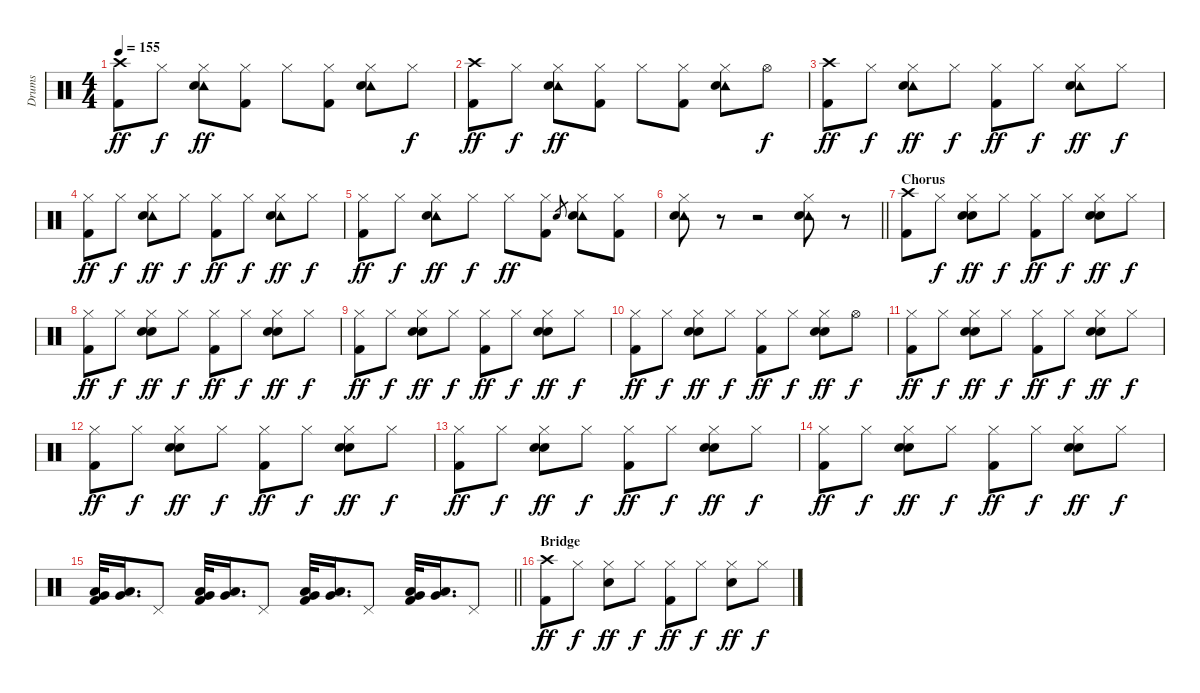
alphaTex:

\track ("Drums" "Drums") {instrument percussion}
\staff {score}
\articulation defaults
\ts (4 4)
\tempo 155
\clef neutral
\ks c
("Crash high (hit)" "Kick (hit) 2").8{dy ff} "Hi-Hat (closed)".8{dy f} ("Tambourine (hit)" "Hi-Hat (closed)" "Snare (hit) 2").8{dy ff} ("Hi-Hat (closed)" "Kick (hit) 2").8 "Hi-Hat (closed)".8 ("Hi-Hat (closed)" "Kick (hit) 2").8 ("Tambourine (hit)" "Hi-Hat (closed)" "Snare (hit) 2").8 "Hi-Hat (closed)".8{dy f} |
("Crash high (hit)" "Kick (hit) 2").8{dy ff} "Hi-Hat (closed)".8{dy f} ("Tambourine (hit)" "Hi-Hat (closed)" "Snare (hit) 2").8{dy ff} ("Hi-Hat (closed)" "Kick (hit) 2").8 "Hi-Hat (closed)".8 ("Hi-Hat (closed)" "Kick (hit) 2").8 ("Tambourine (hit)" "Hi-Hat (closed)" "Snare (hit) 2").8 "Hi-Hat (open)".8{dy f} |
("Crash high (hit)" "Kick (hit) 2").8{dy ff} "Hi-Hat (closed)".8{dy f} ("Tambourine (hit)" "Hi-Hat (closed)" "Snare (hit) 2").8{dy ff} "Hi-Hat (closed)".8{dy f} ("Hi-Hat (closed)" "Kick (hit) 2").8{dy ff} "Hi-Hat (closed)".8{dy f} ("Tambourine (hit)" "Hi-Hat (closed)" "Snare (hit) 2").8{dy ff} "Hi-Hat (closed)".8{dy f} |
("Hi-Hat (closed)" "Kick (hit) 2").8{dy ff} "Hi-Hat (closed)".8{dy f} ("Tambourine (hit)" "Hi-Hat (closed)" "Snare (hit) 2").8{dy ff} "Hi-Hat (closed)".8{dy f} ("Hi-Hat (closed)" "Kick (hit) 2").8{dy ff} "Hi-Hat (closed)".8{dy f} ("Tambourine (hit)" "Hi-Hat (closed)" "Snare (hit) 2").8{dy ff} "Hi-Hat (closed)".8{dy f} |
("Hi-Hat (closed)" "Kick (hit) 2").8{dy ff} "Hi-Hat (closed)".8{dy f} ("Tambourine (hit)" "Hi-Hat (closed)" "Snare (hit) 2").8{dy ff} "Hi-Hat (closed)".8{dy f} "Hi-Hat (closed)".8{dy ff} ("Hi-Hat (closed)" "Kick (hit) 2").8 "Snare (hit) 2".8{gr} ("Tambourine (hit)" "Hi-Hat (closed)" "Snare (hit) 2").8 ("Hi-Hat (closed)" "Kick (hit) 2").8 |
\barLineRight lightlight
("Tambourine (hit)" "Hi-Hat (closed)" "Snare (hit) 2").8 r.8 r.2 ("Tambourine (hit)" "Hi-Hat (closed)" "Snare (hit) 2").8 r.8 |
\section ("" "Chorus")
("Crash high (hit)" "Kick (hit) 2").8 "Hi-Hat (closed)".8{dy f} ("Hand Clap (hit)" "Hi-Hat (closed)" "Snare (hit) 2").8{dy ff} "Hi-Hat (closed)".8{dy f} ("Hi-Hat (closed)" "Kick (hit) 2").8{dy ff} "Hi-Hat (closed)".8{dy f} ("Hand Clap (hit)" "Hi-Hat (closed)" "Snare (hit) 2").8{dy ff} "Hi-Hat (closed)".8{dy f} |
("Hi-Hat (closed)" "Kick (hit) 2").8{dy ff} "Hi-Hat (closed)".8{dy f} ("Hand Clap (hit)" "Hi-Hat (closed)" "Snare (hit) 2").8{dy ff} "Hi-Hat (closed)".8{dy f} ("Hi-Hat (closed)" "Kick (hit) 2").8{dy ff} "Hi-Hat (closed)".8{dy f} ("Hand Clap (hit)" "Hi-Hat (closed)" "Snare (hit) 2").8{dy ff} "Hi-Hat (closed)".8{dy f} |
("Hi-Hat (closed)" "Kick (hit) 2").8{dy ff} "Hi-Hat (closed)".8{dy f} ("Hand Clap (hit)" "Hi-Hat (closed)" "Snare (hit) 2").8{dy ff} "Hi-Hat (closed)".8{dy f} ("Hi-Hat (closed)" "Kick (hit) 2").8{dy ff} "Hi-Hat (closed)".8{dy f} ("Hand Clap (hit)" "Hi-Hat (closed)" "Snare (hit) 2").8{dy ff} "Hi-Hat (closed)".8{dy f} |
("Hi-Hat (closed)" "Kick (hit) 2").8{dy ff} "Hi-Hat (closed)".8{dy f} ("Hand Clap (hit)" "Hi-Hat (closed)" "Snare (hit) 2").8{dy ff} "Hi-Hat (closed)".8{dy f} ("Hi-Hat (closed)" "Kick (hit) 2").8{dy ff} "Hi-Hat (closed)".8{dy f} ("Hand Clap (hit)" "Hi-Hat (closed)" "Snare (hit) 2").8{dy ff} "Hi-Hat (open)".8{dy f} |
("Hi-Hat (closed)" "Kick (hit) 2").8{dy ff} "Hi-Hat (closed)".8{dy f} ("Hand Clap (hit)" "Hi-Hat (closed)" "Snare (hit) 2").8{dy ff} "Hi-Hat (closed)".8{dy f} ("Hi-Hat (closed)" "Kick (hit) 2").8{dy ff} "Hi-Hat (closed)".8{dy f} ("Hand Clap (hit)" "Hi-Hat (closed)" "Snare (hit) 2").8{dy ff} "Hi-Hat (closed)".8{dy f} |
("Hi-Hat (closed)" "Kick (hit) 2").8{dy ff} "Hi-Hat (closed)".8{dy f} ("Hand Clap (hit)" "Hi-Hat (closed)" "Snare (hit) 2").8{dy ff} "Hi-Hat (closed)".8{dy f} ("Hi-Hat (closed)" "Kick (hit) 2").8{dy ff} "Hi-Hat (closed)".8{dy f} ("Hand Clap (hit)" "Hi-Hat (closed)" "Snare (hit) 2").8{dy ff} "Hi-Hat (closed)".8{dy f} |
("Hi-Hat (closed)" "Kick (hit) 2").8{dy ff} "Hi-Hat (closed)".8{dy f} ("Hand Clap (hit)" "Hi-Hat (closed)" "Snare (hit) 2").8{dy ff} "Hi-Hat (closed)".8{dy f} ("Hi-Hat (closed)" "Kick (hit) 2").8{dy ff} "Hi-Hat (closed)".8{dy f} ("Hand Clap (hit)" "Hi-Hat (closed)" "Snare (hit) 2").8{dy ff} "Hi-Hat (closed)".8{dy f} |
("Hi-Hat (closed)" "Kick (hit) 2").8{dy ff} "Hi-Hat (closed)".8{dy f} ("Hand Clap (hit)" "Hi-Hat (closed)" "Snare (hit) 2").8{dy ff} "Hi-Hat (closed)".8{dy f} ("Hi-Hat (closed)" "Kick (hit) 2").8{dy ff} "Hi-Hat (closed)".8{dy f} ("Hand Clap (hit)" "Hi-Hat (closed)" "Snare (hit) 2").8{dy ff} "Hi-Hat (closed)".8{dy f} |
\barLineRight lightlight
("Low Tom (hit)" "Very Low Tom (hit)" "Kick (hit) 2").32 ("Very Low Tom (hit)" "Low Floor Tom (hit)").16{d} "Pedal Hi-Hat (hit)".8 ("Low Tom (hit)" "Very Low Tom (hit)" "Kick (hit) 2").32 ("Very Low Tom (hit)" "Low Floor Tom (hit)").16{d} "Pedal Hi-Hat (hit)".8 ("Low Tom (hit)" "Very Low Tom (hit)" "Kick (hit) 2").32 ("Very Low Tom (hit)" "Low Floor Tom (hit)").16{d} "Pedal Hi-Hat (hit)".8 ("Low Tom (hit)" "Very Low Tom (hit)" "Kick (hit) 2").32 ("Very Low Tom (hit)" "Low Floor Tom (hit)").16{d} "Pedal Hi-Hat (hit)".8 |
\section ("" "Bridge")
("Crash high (hit)" "Kick (hit) 2").8{dy ff} "Hi-Hat (closed)".8{dy f} ("Hi-Hat (closed)" "Snare (hit) 2").8{dy ff} "Hi-Hat (closed)".8{dy f} ("Hi-Hat (closed)" "Kick (hit) 2").8{dy ff} "Hi-Hat (closed)".8{dy f} ("Hi-Hat (closed)" "Snare (hit) 2").8{dy ff} "Hi-Hat (closed)".8{dy f}
